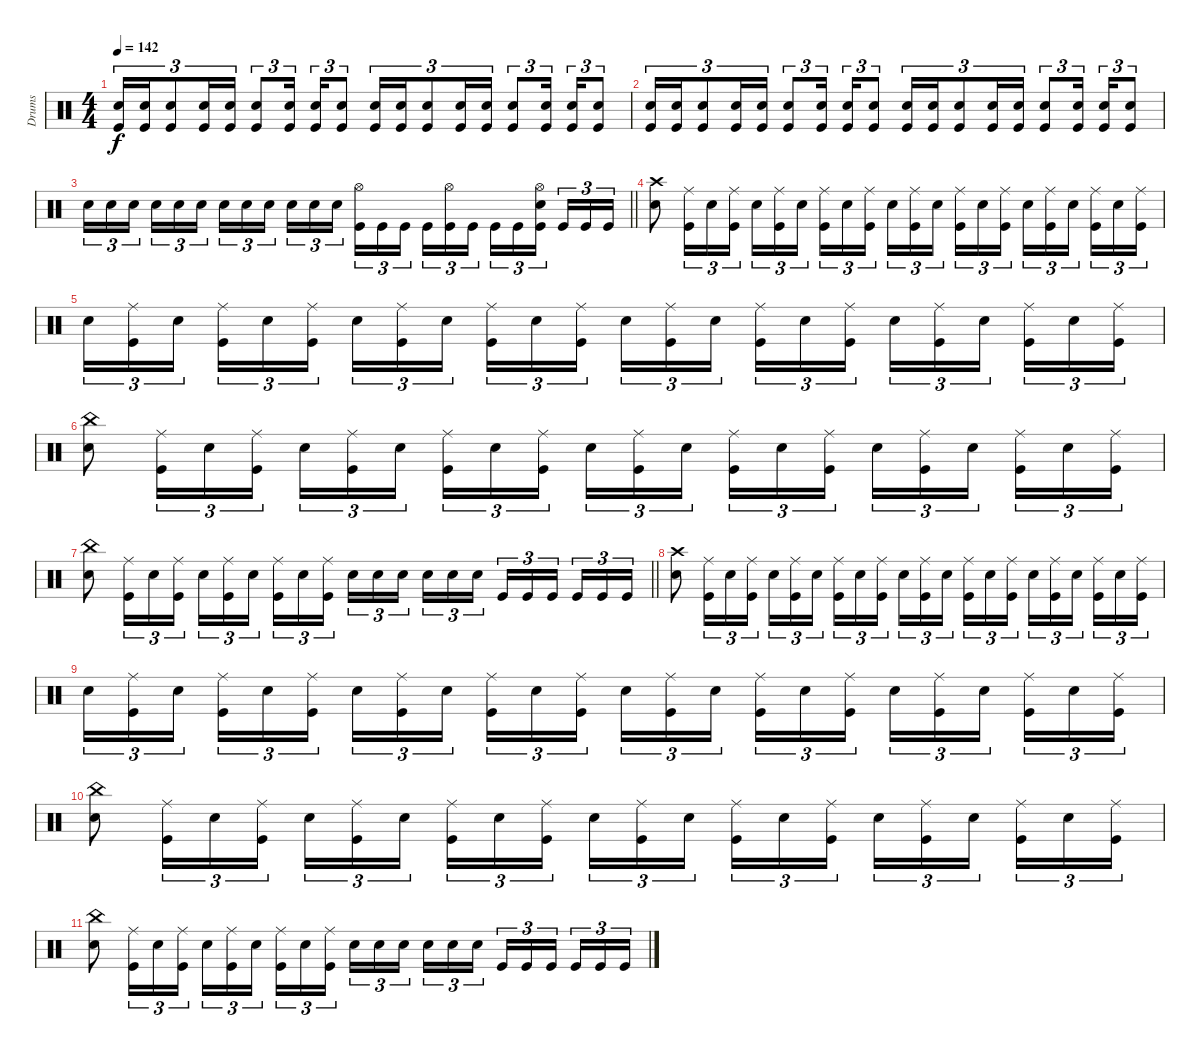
\track ("Drums" "Drums") {instrument percussion}
\staff
\articulation defaults
\ts (4 4)
\tempo 142
\clef neutral
\ks c
("Electric Snare (hit)" "Kick (hit)").16{tu (3 2) dy f} ("Electric Snare (hit)" "Kick (hit)").16{tu (3 2)} ("Electric Snare (hit)" "Kick (hit)").8{tu (3 2)} ("Electric Snare (hit)" "Kick (hit)").16{tu (3 2)} ("Electric Snare (hit)" "Kick (hit)").16{tu (3 2)} ("Electric Snare (hit)" "Kick (hit)").8{tu (3 2)} ("Electric Snare (hit)" "Kick (hit)").16{tu (3 2) beam splitsecondary} ("Electric Snare (hit)" "Kick (hit)").16{tu (3 2)} ("Electric Snare (hit)" "Kick (hit)").8{tu (3 2)} ("Electric Snare (hit)" "Kick (hit)").16{tu (3 2)} ("Electric Snare (hit)" "Kick (hit)").16{tu (3 2)} ("Electric Snare (hit)" "Kick (hit)").8{tu (3 2)} ("Electric Snare (hit)" "Kick (hit)").16{tu (3 2)} ("Electric Snare (hit)" "Kick (hit)").16{tu (3 2)} ("Electric Snare (hit)" "Kick (hit)").8{tu (3 2)} ("Electric Snare (hit)" "Kick (hit)").16{tu (3 2) beam splitsecondary} ("Electric Snare (hit)" "Kick (hit)").16{tu (3 2)} ("Electric Snare (hit)" "Kick (hit)").8{tu (3 2)} |
("Electric Snare (hit)" "Kick (hit)").16{tu (3 2)} ("Electric Snare (hit)" "Kick (hit)").16{tu (3 2)} ("Electric Snare (hit)" "Kick (hit)").8{tu (3 2)} ("Electric Snare (hit)" "Kick (hit)").16{tu (3 2)} ("Electric Snare (hit)" "Kick (hit)").16{tu (3 2)} ("Electric Snare (hit)" "Kick (hit)").8{tu (3 2)} ("Electric Snare (hit)" "Kick (hit)").16{tu (3 2) beam splitsecondary} ("Electric Snare (hit)" "Kick (hit)").16{tu (3 2)} ("Electric Snare (hit)" "Kick (hit)").8{tu (3 2)} ("Electric Snare (hit)" "Kick (hit)").16{tu (3 2)} ("Electric Snare (hit)" "Kick (hit)").16{tu (3 2)} ("Electric Snare (hit)" "Kick (hit)").8{tu (3 2)} ("Electric Snare (hit)" "Kick (hit)").16{tu (3 2)} ("Electric Snare (hit)" "Kick (hit)").16{tu (3 2)} ("Electric Snare (hit)" "Kick (hit)").8{tu (3 2)} ("Electric Snare (hit)" "Kick (hit)").16{tu (3 2) beam splitsecondary} ("Electric Snare (hit)" "Kick (hit)").16{tu (3 2)} ("Electric Snare (hit)" "Kick (hit)").8{tu (3 2)} |
\barLineRight lightlight "Electric Snare (hit)".16{tu (3 2)} "Electric Snare (hit)".16{tu (3 2)} "Electric Snare (hit)".16{tu (3 2) beam splitsecondary} "Electric Snare (hit)".16{tu (3 2)} "Electric Snare (hit)".16{tu (3 2)} "Electric Snare (hit)".16{tu (3 2)} "Electric Snare (hit)".16{tu (3 2)} "Electric Snare (hit)".16{tu (3 2)} "Electric Snare (hit)".16{tu (3 2) beam splitsecondary} "Electric Snare (hit)".16{tu (3 2)} "Electric Snare (hit)".16{tu (3 2)} "Electric Snare (hit)".16{tu (3 2)}
("Hi-Hat (open)" "Kick (hit)").16{tu (3 2)} "Kick (hit)".16{tu (3 2)} "Kick (hit)".16{tu (3 2) beam splitsecondary} "Kick (hit)".16{tu (3 2)} ("Hi-Hat (open)" "Kick (hit)").16{tu (3 2)} "Kick (hit)".16{tu (3 2)} "Kick (hit)".16{tu (3 2)} "Kick (hit)".16{tu (3 2)} ("Hi-Hat (open)" "Electric Snare (hit)" "Kick (hit)").16{tu (3 2) beam splitsecondary} "Kick (hit)".16{tu (3 2)} "Kick (hit)".16{tu (3 2)} "Kick (hit)".16{tu (3 2)} |
("Crash high (hit)" "Electric Snare (hit)").8 ("Ride (middle)" "Kick (hit)").16{tu (3 2)} "Electric Snare (hit)".16{tu (3 2)} ("Ride (middle)" "Kick (hit)").16{tu (3 2)} "Electric Snare (hit)".16{tu (3 2)} ("Ride (middle)" "Kick (hit)").16{tu (3 2)} "Electric Snare (hit)".16{tu (3 2) beam splitsecondary} ("Ride (middle)" "Kick (hit)").16{tu (3 2)} "Electric Snare (hit)".16{tu (3 2)} ("Ride (middle)" "Kick (hit)").16{tu (3 2)} "Electric Snare (hit)".16{tu (3 2)} ("Ride (middle)" "Kick (hit)").16{tu (3 2)} "Electric Snare (hit)".16{tu (3 2) beam splitsecondary} ("Ride (middle)" "Kick (hit)").16{tu (3 2)} "Electric Snare (hit)".16{tu (3 2)} ("Ride (middle)" "Kick (hit)").16{tu (3 2)} "Electric Snare (hit)".16{tu (3 2)} ("Ride (middle)" "Kick (hit)").16{tu (3 2)} "Electric Snare (hit)".16{tu (3 2) beam splitsecondary} ("Ride (middle)" "Kick (hit)").16{tu (3 2)} "Electric Snare (hit)".16{tu (3 2)} ("Ride (middle)" "Kick (hit)").16{tu (3 2)} |
"Electric Snare (hit)".16{tu (3 2)} ("Ride (middle)" "Kick (hit)").16{tu (3 2)} "Electric Snare (hit)".16{tu (3 2) beam splitsecondary} ("Ride (middle)" "Kick (hit)").16{tu (3 2)} "Electric Snare (hit)".16{tu (3 2)} ("Ride (middle)" "Kick (hit)").16{tu (3 2)} "Electric Snare (hit)".16{tu (3 2)} ("Ride (middle)" "Kick (hit)").16{tu (3 2)} "Electric Snare (hit)".16{tu (3 2) beam splitsecondary} ("Ride (middle)" "Kick (hit)").16{tu (3 2)} "Electric Snare (hit)".16{tu (3 2)} ("Ride (middle)" "Kick (hit)").16{tu (3 2)} "Electric Snare (hit)".16{tu (3 2)} ("Ride (middle)" "Kick (hit)").16{tu (3 2)} "Electric Snare (hit)".16{tu (3 2) beam splitsecondary} ("Ride (middle)" "Kick (hit)").16{tu (3 2)} "Electric Snare (hit)".16{tu (3 2)} ("Ride (middle)" "Kick (hit)").16{tu (3 2)} "Electric Snare (hit)".16{tu (3 2)} ("Ride (middle)" "Kick (hit)").16{tu (3 2)} "Electric Snare (hit)".16{tu (3 2) beam splitsecondary} ("Ride (middle)" "Kick (hit)").16{tu (3 2)} "Electric Snare (hit)".16{tu (3 2)} ("Ride (middle)" "Kick (hit)").16{tu (3 2)} |
("China (hit)" "Electric Snare (hit)").8 ("Ride (middle)" "Kick (hit)").16{tu (3 2)} "Electric Snare (hit)".16{tu (3 2)} ("Ride (middle)" "Kick (hit)").16{tu (3 2)} "Electric Snare (hit)".16{tu (3 2)} ("Ride (middle)" "Kick (hit)").16{tu (3 2)} "Electric Snare (hit)".16{tu (3 2) beam splitsecondary} ("Ride (middle)" "Kick (hit)").16{tu (3 2)} "Electric Snare (hit)".16{tu (3 2)} ("Ride (middle)" "Kick (hit)").16{tu (3 2)} "Electric Snare (hit)".16{tu (3 2)} ("Ride (middle)" "Kick (hit)").16{tu (3 2)} "Electric Snare (hit)".16{tu (3 2) beam splitsecondary} ("Ride (middle)" "Kick (hit)").16{tu (3 2)} "Electric Snare (hit)".16{tu (3 2)} ("Ride (middle)" "Kick (hit)").16{tu (3 2)} "Electric Snare (hit)".16{tu (3 2)} ("Ride (middle)" "Kick (hit)").16{tu (3 2)} "Electric Snare (hit)".16{tu (3 2) beam splitsecondary} ("Ride (middle)" "Kick (hit)").16{tu (3 2)} "Electric Snare (hit)".16{tu (3 2)} ("Ride (middle)" "Kick (hit)").16{tu (3 2)} |
\barLineRight lightlight
("China (hit)" "Electric Snare (hit)").8 ("Ride (middle)" "Kick (hit)").16{tu (3 2)} "Electric Snare (hit)".16{tu (3 2)} ("Ride (middle)" "Kick (hit)").16{tu (3 2)} "Electric Snare (hit)".16{tu (3 2)} ("Ride (middle)" "Kick (hit)").16{tu (3 2)} "Electric Snare (hit)".16{tu (3 2) beam splitsecondary} ("Ride (middle)" "Kick (hit)").16{tu (3 2)} "Electric Snare (hit)".16{tu (3 2)} ("Ride (middle)" "Kick (hit)").16{tu (3 2)} "Electric Snare (hit)".16{tu (3 2)} "Electric Snare (hit)".16{tu (3 2)} "Electric Snare (hit)".16{tu (3 2) beam splitsecondary} "Electric Snare (hit)".16{tu (3 2)} "Electric Snare (hit)".16{tu (3 2)} "Electric Snare (hit)".16{tu (3 2)} "Kick (hit)".16{tu (3 2)} "Kick (hit)".16{tu (3 2)} "Kick (hit)".16{tu (3 2) beam splitsecondary} "Kick (hit)".16{tu (3 2)} "Kick (hit)".16{tu (3 2)} "Kick (hit)".16{tu (3 2)} |
("Crash high (hit)" "Electric Snare (hit)").8 ("Ride (middle)" "Kick (hit)").16{tu (3 2)} "Electric Snare (hit)".16{tu (3 2)} ("Ride (middle)" "Kick (hit)").16{tu (3 2)} "Electric Snare (hit)".16{tu (3 2)} ("Ride (middle)" "Kick (hit)").16{tu (3 2)} "Electric Snare (hit)".16{tu (3 2) beam splitsecondary} ("Ride (middle)" "Kick (hit)").16{tu (3 2)} "Electric Snare (hit)".16{tu (3 2)} ("Ride (middle)" "Kick (hit)").16{tu (3 2)} "Electric Snare (hit)".16{tu (3 2)} ("Ride (middle)" "Kick (hit)").16{tu (3 2)} "Electric Snare (hit)".16{tu (3 2) beam splitsecondary} ("Ride (middle)" "Kick (hit)").16{tu (3 2)} "Electric Snare (hit)".16{tu (3 2)} ("Ride (middle)" "Kick (hit)").16{tu (3 2)} "Electric Snare (hit)".16{tu (3 2)} ("Ride (middle)" "Kick (hit)").16{tu (3 2)} "Electric Snare (hit)".16{tu (3 2) beam splitsecondary} ("Ride (middle)" "Kick (hit)").16{tu (3 2)} "Electric Snare (hit)".16{tu (3 2)} ("Ride (middle)" "Kick (hit)").16{tu (3 2)} |
"Electric Snare (hit)".16{tu (3 2)} ("Ride (middle)" "Kick (hit)").16{tu (3 2)} "Electric Snare (hit)".16{tu (3 2) beam splitsecondary} ("Ride (middle)" "Kick (hit)").16{tu (3 2)} "Electric Snare (hit)".16{tu (3 2)} ("Ride (middle)" "Kick (hit)").16{tu (3 2)} "Electric Snare (hit)".16{tu (3 2)} ("Ride (middle)" "Kick (hit)").16{tu (3 2)} "Electric Snare (hit)".16{tu (3 2) beam splitsecondary} ("Ride (middle)" "Kick (hit)").16{tu (3 2)} "Electric Snare (hit)".16{tu (3 2)} ("Ride (middle)" "Kick (hit)").16{tu (3 2)} "Electric Snare (hit)".16{tu (3 2)} ("Ride (middle)" "Kick (hit)").16{tu (3 2)} "Electric Snare (hit)".16{tu (3 2) beam splitsecondary} ("Ride (middle)" "Kick (hit)").16{tu (3 2)} "Electric Snare (hit)".16{tu (3 2)} ("Ride (middle)" "Kick (hit)").16{tu (3 2)} "Electric Snare (hit)".16{tu (3 2)} ("Ride (middle)" "Kick (hit)").16{tu (3 2)} "Electric Snare (hit)".16{tu (3 2) beam splitsecondary} ("Ride (middle)" "Kick (hit)").16{tu (3 2)} "Electric Snare (hit)".16{tu (3 2)} ("Ride (middle)" "Kick (hit)").16{tu (3 2)} |
("China (hit)" "Electric Snare (hit)").8 ("Ride (middle)" "Kick (hit)").16{tu (3 2)} "Electric Snare (hit)".16{tu (3 2)} ("Ride (middle)" "Kick (hit)").16{tu (3 2)} "Electric Snare (hit)".16{tu (3 2)} ("Ride (middle)" "Kick (hit)").16{tu (3 2)} "Electric Snare (hit)".16{tu (3 2) beam splitsecondary} ("Ride (middle)" "Kick (hit)").16{tu (3 2)} "Electric Snare (hit)".16{tu (3 2)} ("Ride (middle)" "Kick (hit)").16{tu (3 2)} "Electric Snare (hit)".16{tu (3 2)} ("Ride (middle)" "Kick (hit)").16{tu (3 2)} "Electric Snare (hit)".16{tu (3 2) beam splitsecondary} ("Ride (middle)" "Kick (hit)").16{tu (3 2)} "Electric Snare (hit)".16{tu (3 2)} ("Ride (middle)" "Kick (hit)").16{tu (3 2)} "Electric Snare (hit)".16{tu (3 2)} ("Ride (middle)" "Kick (hit)").16{tu (3 2)} "Electric Snare (hit)".16{tu (3 2) beam splitsecondary} ("Ride (middle)" "Kick (hit)").16{tu (3 2)} "Electric Snare (hit)".16{tu (3 2)} ("Ride (middle)" "Kick (hit)").16{tu (3 2)} |
("China (hit)" "Electric Snare (hit)").8 ("Ride (middle)" "Kick (hit)").16{tu (3 2)} "Electric Snare (hit)".16{tu (3 2)} ("Ride (middle)" "Kick (hit)").16{tu (3 2)} "Electric Snare (hit)".16{tu (3 2)} ("Ride (middle)" "Kick (hit)").16{tu (3 2)} "Electric Snare (hit)".16{tu (3 2) beam splitsecondary} ("Ride (middle)" "Kick (hit)").16{tu (3 2)} "Electric Snare (hit)".16{tu (3 2)} ("Ride (middle)" "Kick (hit)").16{tu (3 2)} "Electric Snare (hit)".16{tu (3 2)} "Electric Snare (hit)".16{tu (3 2)} "Electric Snare (hit)".16{tu (3 2) beam splitsecondary} "Electric Snare (hit)".16{tu (3 2)} "Electric Snare (hit)".16{tu (3 2)} "Electric Snare (hit)".16{tu (3 2)} "Kick (hit)".16{tu (3 2)} "Kick (hit)".16{tu (3 2)} "Kick (hit)".16{tu (3 2) beam splitsecondary} "Kick (hit)".16{tu (3 2)} "Kick (hit)".16{tu (3 2)} "Kick (hit)".16{tu (3 2)}
